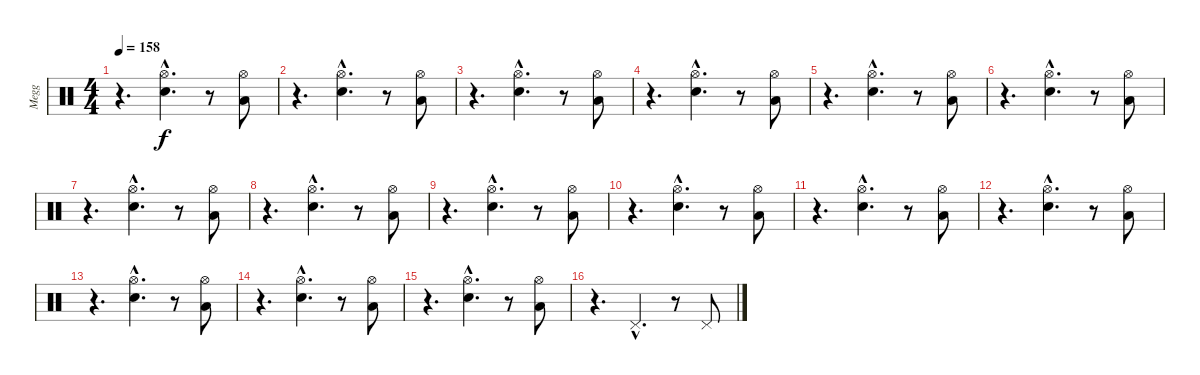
\track ("Megg" "Megg") {instrument percussion}
\staff {score}
\articulation defaults
\ts (4 4)
\tempo 158
\clef neutral
\ks c
r.4{d dy f} ("Electric Snare (hit)"{hac} "Hi-Hat (open)"{hac}).4{d} r.8 ("Low Tom (hit)" "Hi-Hat (open)").8 |
r.4{d} ("Electric Snare (hit)"{hac} "Hi-Hat (open)"{hac}).4{d} r.8 ("Low Tom (hit)" "Hi-Hat (open)").8 |
r.4{d} ("Electric Snare (hit)"{hac} "Hi-Hat (open)"{hac}).4{d} r.8 ("Low Tom (hit)" "Hi-Hat (open)").8 |
r.4{d} ("Electric Snare (hit)"{hac} "Hi-Hat (open)"{hac}).4{d} r.8 ("Low Tom (hit)" "Hi-Hat (open)").8 |
r.4{d} ("Electric Snare (hit)"{hac} "Hi-Hat (open)"{hac}).4{d} r.8 ("Low Tom (hit)" "Hi-Hat (open)").8 |
r.4{d} ("Electric Snare (hit)"{hac} "Hi-Hat (open)"{hac}).4{d} r.8 ("Low Tom (hit)" "Hi-Hat (open)").8 |
r.4{d} ("Electric Snare (hit)"{hac} "Hi-Hat (open)"{hac}).4{d} r.8 ("Low Tom (hit)" "Hi-Hat (open)").8 |
r.4{d} ("Electric Snare (hit)"{hac} "Hi-Hat (open)"{hac}).4{d} r.8 ("Low Tom (hit)" "Hi-Hat (open)").8 |
r.4{d} ("Electric Snare (hit)"{hac} "Hi-Hat (open)"{hac}).4{d} r.8 ("Low Tom (hit)" "Hi-Hat (open)").8 |
r.4{d} ("Electric Snare (hit)"{hac} "Hi-Hat (open)"{hac}).4{d} r.8 ("Low Tom (hit)" "Hi-Hat (open)").8 |
r.4{d} ("Electric Snare (hit)"{hac} "Hi-Hat (open)"{hac}).4{d} r.8 ("Low Tom (hit)" "Hi-Hat (open)").8 |
r.4{d} ("Electric Snare (hit)"{hac} "Hi-Hat (open)"{hac}).4{d} r.8 ("Low Tom (hit)" "Hi-Hat (open)").8 |
r.4{d} ("Electric Snare (hit)"{hac} "Hi-Hat (open)"{hac}).4{d} r.8 ("Low Tom (hit)" "Hi-Hat (open)").8 |
r.4{d} ("Electric Snare (hit)"{hac} "Hi-Hat (open)"{hac}).4{d} r.8 ("Low Tom (hit)" "Hi-Hat (open)").8 |
r.4{d} ("Electric Snare (hit)"{hac} "Hi-Hat (open)"{hac}).4{d} r.8 ("Low Tom (hit)" "Hi-Hat (open)").8 |
r.4{d} "Pedal Hi-Hat (hit)"{hac}.4{d} r.8 "Pedal Hi-Hat (hit)".8
